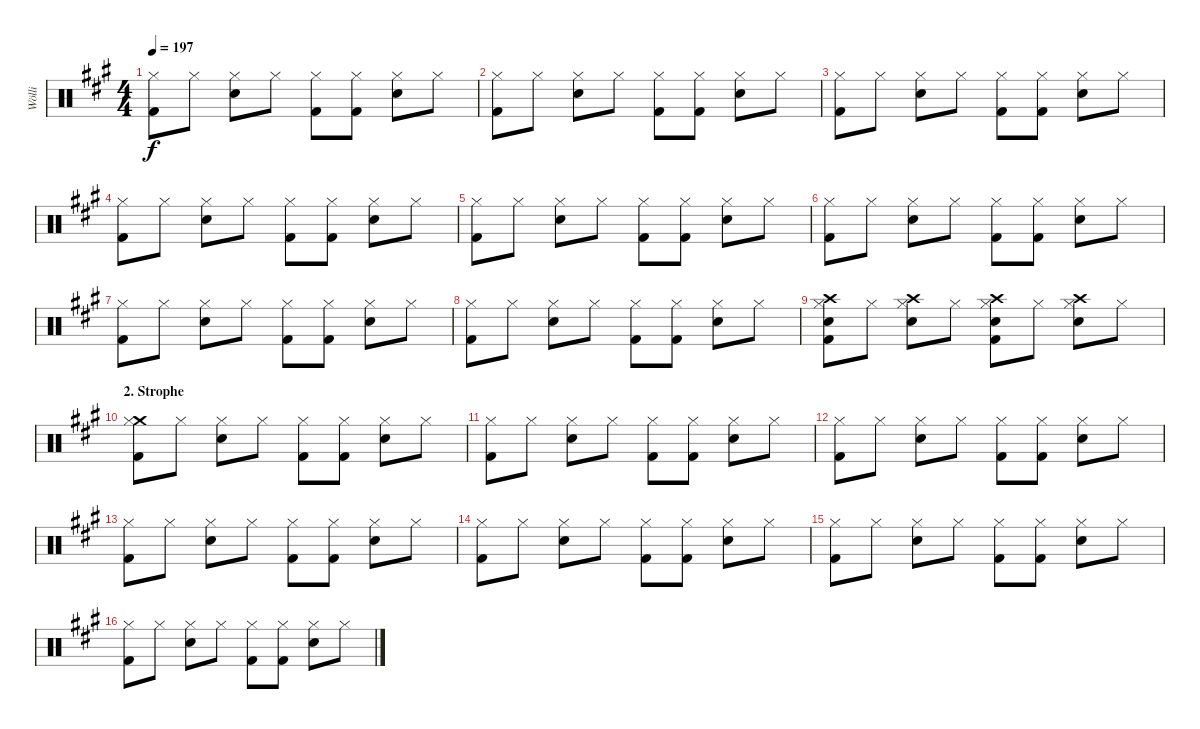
\track ("Wölli" "Wölli") {instrument percussion}
\staff {score}
\articulation defaults
\ts (4 4)
\tempo 197
\clef neutral
\ks a
("Hi-Hat (closed)" "Kick (hit) 2").8{dy f} "Hi-Hat (closed)".8 ("Hi-Hat (closed)" "Snare (hit) 2").8 "Hi-Hat (closed)".8 ("Hi-Hat (closed)" "Kick (hit) 2").8 ("Hi-Hat (closed)" "Kick (hit) 2").8 ("Hi-Hat (closed)" "Snare (hit) 2").8 "Hi-Hat (closed)".8 |
("Hi-Hat (closed)" "Kick (hit) 2").8 "Hi-Hat (closed)".8 ("Hi-Hat (closed)" "Snare (hit) 2").8 "Hi-Hat (closed)".8 ("Hi-Hat (closed)" "Kick (hit) 2").8 ("Hi-Hat (closed)" "Kick (hit) 2").8 ("Hi-Hat (closed)" "Snare (hit) 2").8 "Hi-Hat (closed)".8 |
("Hi-Hat (closed)" "Kick (hit) 2").8 "Hi-Hat (closed)".8 ("Hi-Hat (closed)" "Snare (hit) 2").8 "Hi-Hat (closed)".8 ("Hi-Hat (closed)" "Kick (hit) 2").8 ("Hi-Hat (closed)" "Kick (hit) 2").8 ("Hi-Hat (closed)" "Snare (hit) 2").8 "Hi-Hat (closed)".8 |
("Hi-Hat (closed)" "Kick (hit) 2").8 "Hi-Hat (closed)".8 ("Hi-Hat (closed)" "Snare (hit) 2").8 "Hi-Hat (closed)".8 ("Hi-Hat (closed)" "Kick (hit) 2").8 ("Hi-Hat (closed)" "Kick (hit) 2").8 ("Hi-Hat (closed)" "Snare (hit) 2").8 "Hi-Hat (closed)".8 |
("Hi-Hat (closed)" "Kick (hit) 2").8 "Hi-Hat (closed)".8 ("Hi-Hat (closed)" "Snare (hit) 2").8 "Hi-Hat (closed)".8 ("Hi-Hat (closed)" "Kick (hit) 2").8 ("Hi-Hat (closed)" "Kick (hit) 2").8 ("Hi-Hat (closed)" "Snare (hit) 2").8 "Hi-Hat (closed)".8 |
("Hi-Hat (closed)" "Kick (hit) 2").8 "Hi-Hat (closed)".8 ("Hi-Hat (closed)" "Snare (hit) 2").8 "Hi-Hat (closed)".8 ("Hi-Hat (closed)" "Kick (hit) 2").8 ("Hi-Hat (closed)" "Kick (hit) 2").8 ("Hi-Hat (closed)" "Snare (hit) 2").8 "Hi-Hat (closed)".8 |
("Hi-Hat (closed)" "Kick (hit) 2").8 "Hi-Hat (closed)".8 ("Hi-Hat (closed)" "Snare (hit) 2").8 "Hi-Hat (closed)".8 ("Hi-Hat (closed)" "Kick (hit) 2").8 ("Hi-Hat (closed)" "Kick (hit) 2").8 ("Hi-Hat (closed)" "Snare (hit) 2").8 "Hi-Hat (closed)".8 |
("Hi-Hat (closed)" "Kick (hit) 2").8 "Hi-Hat (closed)".8 ("Hi-Hat (closed)" "Snare (hit) 2").8 "Hi-Hat (closed)".8 ("Hi-Hat (closed)" "Kick (hit) 2").8 ("Hi-Hat (closed)" "Kick (hit) 2").8 ("Hi-Hat (closed)" "Snare (hit) 2").8 "Hi-Hat (closed)".8 |
("Crash high (hit)" "Hi-Hat (closed)" "Snare (hit) 2" "Kick (hit) 2").8 "Hi-Hat (closed)".8 ("Crash high (hit)" "Hi-Hat (closed)" "Snare (hit) 2").8 "Hi-Hat (closed)".8 ("Crash high (hit)" "Hi-Hat (closed)" "Snare (hit) 2" "Kick (hit) 2").8 "Hi-Hat (closed)".8 ("Crash high (hit)" "Hi-Hat (closed)" "Snare (hit) 2").8 "Hi-Hat (closed)".8 |
\section ("" "2. Strophe")
("Crash medium (hit)" "Hi-Hat (closed)" "Kick (hit) 2").8 "Hi-Hat (closed)".8 ("Hi-Hat (closed)" "Snare (hit) 2").8 "Hi-Hat (closed)".8 ("Hi-Hat (closed)" "Kick (hit) 2").8 ("Hi-Hat (closed)" "Kick (hit) 2").8 ("Hi-Hat (closed)" "Snare (hit) 2").8 "Hi-Hat (closed)".8 |
("Hi-Hat (closed)" "Kick (hit) 2").8 "Hi-Hat (closed)".8 ("Hi-Hat (closed)" "Snare (hit) 2").8 "Hi-Hat (closed)".8 ("Hi-Hat (closed)" "Kick (hit) 2").8 ("Hi-Hat (closed)" "Kick (hit) 2").8 ("Hi-Hat (closed)" "Snare (hit) 2").8 "Hi-Hat (closed)".8 |
("Hi-Hat (closed)" "Kick (hit) 2").8 "Hi-Hat (closed)".8 ("Hi-Hat (closed)" "Snare (hit) 2").8 "Hi-Hat (closed)".8 ("Hi-Hat (closed)" "Kick (hit) 2").8 ("Hi-Hat (closed)" "Kick (hit) 2").8 ("Hi-Hat (closed)" "Snare (hit) 2").8 "Hi-Hat (closed)".8 |
("Hi-Hat (closed)" "Kick (hit) 2").8 "Hi-Hat (closed)".8 ("Hi-Hat (closed)" "Snare (hit) 2").8 "Hi-Hat (closed)".8 ("Hi-Hat (closed)" "Kick (hit) 2").8 ("Hi-Hat (closed)" "Kick (hit) 2").8 ("Hi-Hat (closed)" "Snare (hit) 2").8 "Hi-Hat (closed)".8 |
("Hi-Hat (closed)" "Kick (hit) 2").8 "Hi-Hat (closed)".8 ("Hi-Hat (closed)" "Snare (hit) 2").8 "Hi-Hat (closed)".8 ("Hi-Hat (closed)" "Kick (hit) 2").8 ("Hi-Hat (closed)" "Kick (hit) 2").8 ("Hi-Hat (closed)" "Snare (hit) 2").8 "Hi-Hat (closed)".8 |
("Hi-Hat (closed)" "Kick (hit) 2").8 "Hi-Hat (closed)".8 ("Hi-Hat (closed)" "Snare (hit) 2").8 "Hi-Hat (closed)".8 ("Hi-Hat (closed)" "Kick (hit) 2").8 ("Hi-Hat (closed)" "Kick (hit) 2").8 ("Hi-Hat (closed)" "Snare (hit) 2").8 "Hi-Hat (closed)".8 |
("Hi-Hat (closed)" "Kick (hit) 2").8 "Hi-Hat (closed)".8 ("Hi-Hat (closed)" "Snare (hit) 2").8 "Hi-Hat (closed)".8 ("Hi-Hat (closed)" "Kick (hit) 2").8 ("Hi-Hat (closed)" "Kick (hit) 2").8 ("Hi-Hat (closed)" "Snare (hit) 2").8 "Hi-Hat (closed)".8
